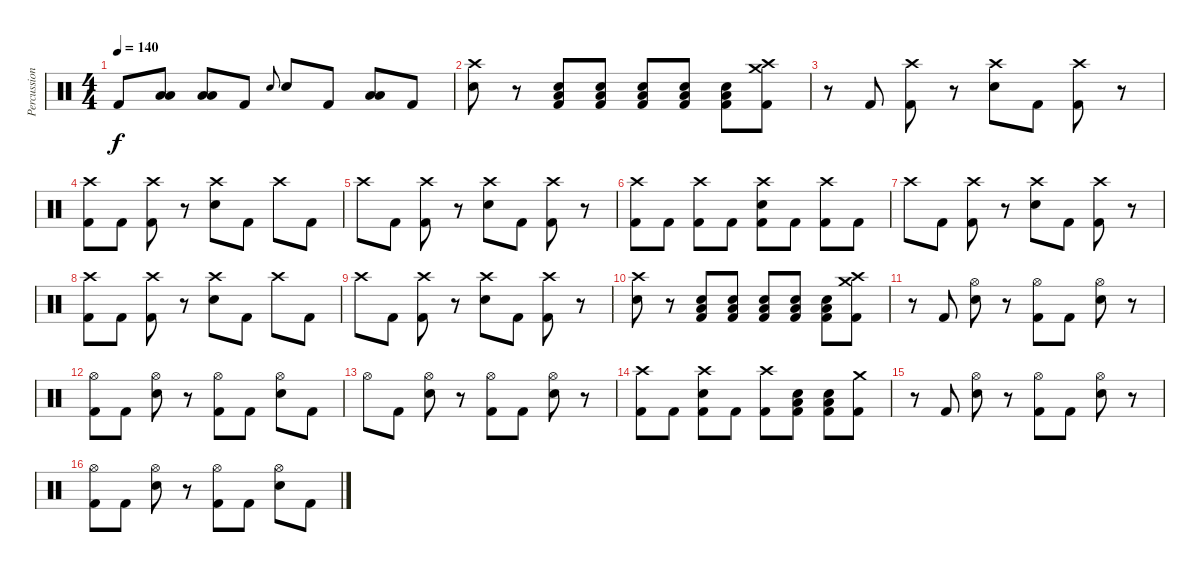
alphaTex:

\track ("Percussion" "Percussion") {instrument percussion}
\staff {score}
\articulation defaults
\ts (4 4)
\tempo 140
\clef neutral
\ks c "Kick (hit) 2".8{dy f}
("Low Tom (hit)" "Low Floor Tom (hit)").8 ("Low Tom (hit)" "Low Floor Tom (hit)").8 "Kick (hit) 2".8 "Electric Snare (hit)".8{gr onbeat} "Electric Snare (hit)".8 "Kick (hit) 2".8 ("Low Tom (hit)" "Low Floor Tom (hit)").8 "Kick (hit) 2".8 |
("Crash high (hit)" "Electric Snare (hit)").8 r.8 ("Low Floor Tom (hit)" "Electric Snare (hit)" "Kick (hit) 2").8 ("Low Floor Tom (hit)" "Electric Snare (hit)" "Kick (hit) 2").8 ("Low Floor Tom (hit)" "Electric Snare (hit)" "Kick (hit) 2").8 ("Low Floor Tom (hit)" "Electric Snare (hit)" "Kick (hit) 2").8 ("Low Floor Tom (hit)" "Electric Snare (hit)" "Kick (hit) 2").8 ("Crash medium (hit)" "Crash high (hit)" "Kick (hit) 2").8 |
r.8 "Kick (hit) 2".8 ("Crash high (hit)" "Kick (hit) 2").8 r.8 ("Crash high (hit)" "Electric Snare (hit)").8 "Kick (hit) 2".8 ("Crash high (hit)" "Kick (hit) 2").8 r.8 |
("Crash high (hit)" "Kick (hit) 2").8 "Kick (hit) 2".8 ("Crash high (hit)" "Kick (hit) 2").8 r.8 ("Crash high (hit)" "Electric Snare (hit)").8 "Kick (hit) 2".8 "Crash high (hit)".8 "Kick (hit) 2".8 |
"Crash high (hit)".8 "Kick (hit) 2".8 ("Crash high (hit)" "Kick (hit) 2").8 r.8 ("Crash high (hit)" "Electric Snare (hit)").8 "Kick (hit) 2".8 ("Crash high (hit)" "Kick (hit) 2").8 r.8 |
("Crash high (hit)" "Kick (hit) 2").8 "Kick (hit) 2".8 ("Crash high (hit)" "Kick (hit) 2").8 "Kick (hit) 2".8 ("Crash high (hit)" "Electric Snare (hit)" "Kick (hit) 2").8 "Kick (hit) 2".8 ("Crash high (hit)" "Kick (hit) 2").8 "Kick (hit) 2".8 |
"Crash high (hit)".8 "Kick (hit) 2".8 ("Crash high (hit)" "Kick (hit) 2").8 r.8 ("Crash high (hit)" "Electric Snare (hit)").8 "Kick (hit) 2".8 ("Crash high (hit)" "Kick (hit) 2").8 r.8 |
("Crash high (hit)" "Kick (hit) 2").8 "Kick (hit) 2".8 ("Crash high (hit)" "Kick (hit) 2").8 r.8 ("Crash high (hit)" "Electric Snare (hit)").8 "Kick (hit) 2".8 "Crash high (hit)".8 "Kick (hit) 2".8 |
"Crash high (hit)".8 "Kick (hit) 2".8 ("Crash high (hit)" "Kick (hit) 2").8 r.8 ("Crash high (hit)" "Electric Snare (hit)").8 "Kick (hit) 2".8 ("Crash high (hit)" "Kick (hit) 2").8 r.8 |
("Crash high (hit)" "Electric Snare (hit)").8 r.8 ("Low Floor Tom (hit)" "Electric Snare (hit)" "Kick (hit) 2").8 ("Low Floor Tom (hit)" "Electric Snare (hit)" "Kick (hit) 2").8 ("Low Floor Tom (hit)" "Electric Snare (hit)" "Kick (hit) 2").8 ("Low Floor Tom (hit)" "Electric Snare (hit)" "Kick (hit) 2").8 ("Low Floor Tom (hit)" "Electric Snare (hit)" "Kick (hit) 2").8 ("Crash medium (hit)" "Crash high (hit)" "Kick (hit) 2").8 |
r.8 "Kick (hit) 2".8 ("Hi-Hat (open)" "Electric Snare (hit)").8 r.8 ("Hi-Hat (open)" "Kick (hit) 2").8 "Kick (hit) 2".8 ("Hi-Hat (open)" "Electric Snare (hit)").8 r.8 |
("Hi-Hat (open)" "Kick (hit) 2").8 "Kick (hit) 2".8 ("Hi-Hat (open)" "Electric Snare (hit)").8 r.8 ("Hi-Hat (open)" "Kick (hit) 2").8 "Kick (hit) 2".8 ("Hi-Hat (open)" "Electric Snare (hit)").8 "Kick (hit) 2".8 |
"Hi-Hat (open)".8 "Kick (hit) 2".8 ("Hi-Hat (open)" "Electric Snare (hit)").8 r.8 ("Hi-Hat (open)" "Kick (hit) 2").8 "Kick (hit) 2".8 ("Hi-Hat (open)" "Electric Snare (hit)").8 r.8 |
("Crash high (hit)" "Kick (hit) 2").8 "Kick (hit) 2".8 ("Crash high (hit)" "Electric Snare (hit)" "Kick (hit) 2").8 "Kick (hit) 2".8 ("Crash high (hit)" "Kick (hit) 2").8 ("Low Floor Tom (hit)" "Electric Snare (hit)" "Kick (hit) 2").8 ("Low Floor Tom (hit)" "Electric Snare (hit)" "Kick (hit) 2").8 ("Crash medium (hit)" "Kick (hit) 2").8 |
r.8 "Kick (hit) 2".8 ("Hi-Hat (open)" "Electric Snare (hit)").8 r.8 ("Hi-Hat (open)" "Kick (hit) 2").8 "Kick (hit) 2".8 ("Hi-Hat (open)" "Electric Snare (hit)").8 r.8 |
("Hi-Hat (open)" "Kick (hit) 2").8 "Kick (hit) 2".8 ("Hi-Hat (open)" "Electric Snare (hit)").8 r.8 ("Hi-Hat (open)" "Kick (hit) 2").8 "Kick (hit) 2".8 ("Hi-Hat (open)" "Electric Snare (hit)").8 "Kick (hit) 2".8
